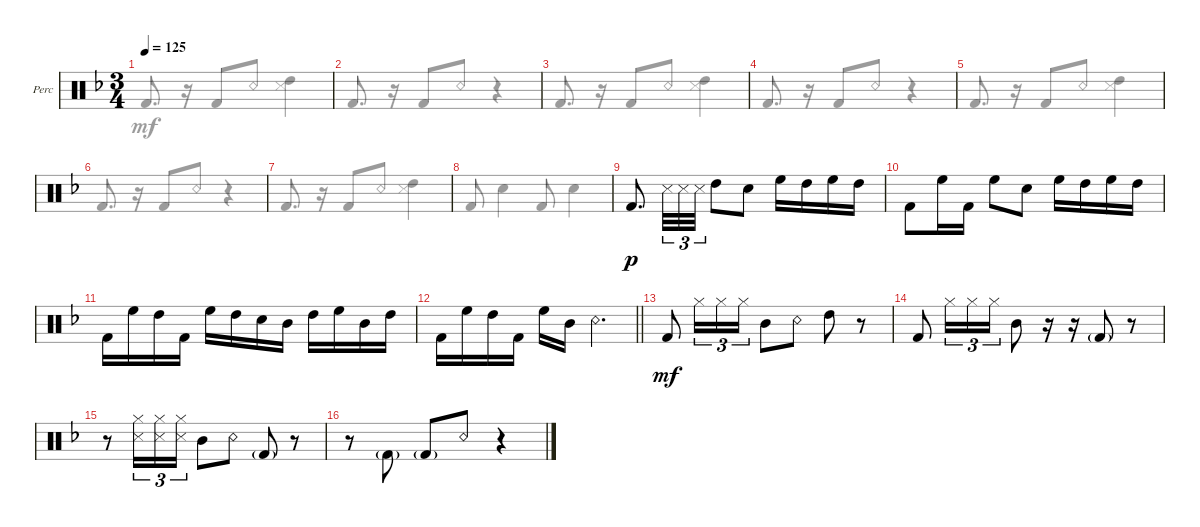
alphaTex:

\defaultSystemsLayout 4
\bracketExtendMode groupsimilarinstruments
\firstSystemTrackNameOrientation horizontal
\otherSystemsTrackNameOrientation horizontal
\track ("Body Percussion" "Perc") {instrument percussion}
\staff {score}
\articulation defaults
\voice
\ts (3 4)
\scale
0.568136
\tempo 125
\accidentals auto
\clef neutral
\ottava regular
\simile none
\ks dminor
|
\scale
0.43186 |
|
|
|
|
\scale
0.530305 |
\scale
0.46976 |
\scale
0.494434 "Kick (hit) 2"{acc forcenatural}.8{d dy p beam Up} "Snare (side stick) 3"{acc forcenatural}.32{tu (3 2) beam Down} "Snare (side stick) 3"{acc forcenatural}.32{tu (3 2) beam Down} "Snare (side stick) 3"{acc forcenatural}.32{tu (3 2) beam Down} "High Tom (hit)"{acc forcenatural}.8{beam Down} "Snare (hit) 2"{acc forcenatural}.8{beam Down} "High Floor Tom (hit)"{acc forcenatural}.16{beam Down} "High Tom (hit)"{acc forcenatural}.16{beam Down} "High Floor Tom (hit)"{acc forcenatural}.16{beam Down} "High Tom (hit)"{acc forcenatural}.16{beam Down} |
\scale
0.280788 "Kick (hit) 2"{acc forcenatural}.8{beam Down} "High Floor Tom (hit)"{acc forcenatural}.16{beam Down} "Kick (hit) 2"{acc forcenatural}.16{beam Down} "High Floor Tom (hit)"{acc forcenatural}.8{beam Down} "Snare (hit) 2"{acc forcenatural}.8{beam Down} "High Floor Tom (hit)"{acc forcenatural}.16{beam Down} "High Tom (hit)"{acc forcenatural}.16{beam Down} "High Floor Tom (hit)"{acc forcenatural}.16{beam Down} "High Tom (hit)"{acc forcenatural}.16{beam Down} |
\scale
0.314958 "Kick (hit) 2"{acc forcenatural}.16{beam Down} "High Floor Tom (hit)"{acc forcenatural}.16{beam Down} "High Tom (hit)"{acc forcenatural}.16{beam Down} "Kick (hit) 2"{acc forcenatural}.16{beam Down} "High Floor Tom (hit)"{acc forcenatural}.16{beam Down} "High Tom (hit)"{acc forcenatural}.16{beam Down} "Snare (hit) 2"{acc forcenatural}.16{beam Down} "Mid Tom (hit)"{acc forcenatural}.16{beam Down} "High Tom (hit)"{acc forcenatural}.16{beam Down} "High Floor Tom (hit)"{acc forcenatural}.16{beam Down} "Mid Tom (hit)"{acc forcenatural}.16{beam Down} "High Tom (hit)"{acc forcenatural}.16{beam Down} |
\scale
0.36255
\barLineRight lightlight "Kick (hit) 2"{acc forcenatural}.16{beam Down} "High Floor Tom (hit)"{acc forcenatural}.16{beam Down} "High Tom (hit)"{acc forcenatural}.16{beam Down} "Kick (hit) 2"{acc forcenatural}.16{beam Down} "High Floor Tom (hit)"{acc forcenatural}.16{beam Down} "Mid Tom (hit)"{acc forcenatural}.16{beam Down} "Snare (rim shot)"{acc forcenatural}.4{d beam Down}
|
"Kick (hit) 2"{acc forcenatural}.8{dy mf beam Up} "Hi-Hat (closed)"{acc forcenatural}.16{tu (3 2) beam Down} "Hi-Hat (closed)"{acc forcenatural}.16{tu (3 2) beam Down} "Hi-Hat (closed)"{acc forcenatural}.16{tu (3 2) beam Down} "Mid Tom (hit)"{acc forcenatural}.8{beam Down} "Snare (rim shot)"{acc forcenatural}.8{beam Down} "High Tom (hit)"{acc forcenatural}.8{beam Down} r.8{beam Down} |
"Kick (hit) 2"{acc forcenatural}.8{beam Up} "Hi-Hat (closed)"{acc forcenatural}.16{tu (3 2) beam Down} "Hi-Hat (closed)"{acc forcenatural}.16{tu (3 2) beam Down} "Hi-Hat (closed)"{acc forcenatural}.16{tu (3 2) beam Down} "Mid Tom (hit)"{acc forcenatural}.8{beam Down} r.16{beam Down} r.16{beam Down} "Kick (hit) 2"{g acc forcenatural}.8{beam Up} r.8{beam Up} |
r.8{beam Down} ("Hi-Hat (closed)"{acc forcenatural} "Snare (side stick) 3"{acc forcenatural}).16{tu (3 2) beam Down} ("Hi-Hat (closed)"{acc forcenatural} "Snare (side stick) 3"{acc forcenatural}).16{tu (3 2) beam Down} ("Hi-Hat (closed)"{acc forcenatural} "Snare (side stick) 3"{acc forcenatural}).16{tu (3 2) beam Down} "Mid Tom (hit)"{acc forcenatural}.8{beam Down} "Snare (rim shot)"{acc forcenatural}.8{beam Up} "Kick (hit) 2"{g acc forcenatural}.8{beam Up} r.8{beam Up} |
r.8{beam Down} "Kick (hit) 2"{g acc forcenatural}.8{beam Up} "Kick (hit) 2"{g acc forcenatural}.8{beam Up} "Snare (rim shot)"{acc forcenatural}.8{beam Down} r.4{beam Down}
\voice
\clef neutral
\ottava regular
\simile none
\ks dminor "Kick (hit) 2"{acc forcenatural}.8{d dy mf beam Up}
r.16{beam Up} "Kick (hit) 2"{acc forcenatural}.8{beam Up} "Snare (rim shot)"{acc forcenatural}.8{beam Down} ("High Tom (hit)"{acc forcenatural} "Snare (side stick) 3"{acc forcenatural}).4{beam Down} |
"Kick (hit) 2"{acc forcenatural}.8{d beam Up} r.16{beam Up} "Kick (hit) 2"{acc forcenatural}.8{beam Up} "Snare (rim shot)"{acc forcenatural}.8{beam Down} r.4{beam Down} |
"Kick (hit) 2"{acc forcenatural}.8{d beam Up} r.16{beam Up} "Kick (hit) 2"{acc forcenatural}.8{beam Up} "Snare (rim shot)"{acc forcenatural}.8{beam Down} ("High Tom (hit)"{acc forcenatural} "Snare (side stick) 3"{acc forcenatural}).4{beam Down} |
"Kick (hit) 2"{acc forcenatural}.8{d beam Up} r.16{beam Up} "Kick (hit) 2"{acc forcenatural}.8{beam Up} "Snare (rim shot)"{acc forcenatural}.8{beam Down} r.4{beam Down} |
"Kick (hit) 2"{acc forcenatural}.8{d beam Up} r.16{beam Up} "Kick (hit) 2"{acc forcenatural}.8{beam Up} "Snare (rim shot)"{acc forcenatural}.8{beam Down} ("High Tom (hit)"{acc forcenatural} "Snare (side stick) 3"{acc forcenatural}).4{beam Down} |
"Kick (hit) 2"{acc forcenatural}.8{d beam Up} r.16{beam Up} "Kick (hit) 2"{acc forcenatural}.8{beam Up} "Snare (rim shot)"{acc forcenatural}.8{beam Down} r.4{beam Down} |
"Kick (hit) 2"{acc forcenatural}.8{d beam Up} r.16{beam Up} "Kick (hit) 2"{acc forcenatural}.8{beam Up} "Snare (rim shot)"{acc forcenatural}.8{beam Down} ("High Tom (hit)"{acc forcenatural} "Snare (side stick) 3"{acc forcenatural}).4{beam Down} |
"Kick (hit) 2"{acc forcenatural}.8{beam Up} "Snare (hit) 2"{acc forcenatural}.4{beam Down} "Kick (hit) 2"{acc forcenatural}.8{beam Up} "Snare (hit) 2"{acc forcenatural}.4{beam Down} |
|
|
|
\barLineRight lightlight
|
|
|
|
